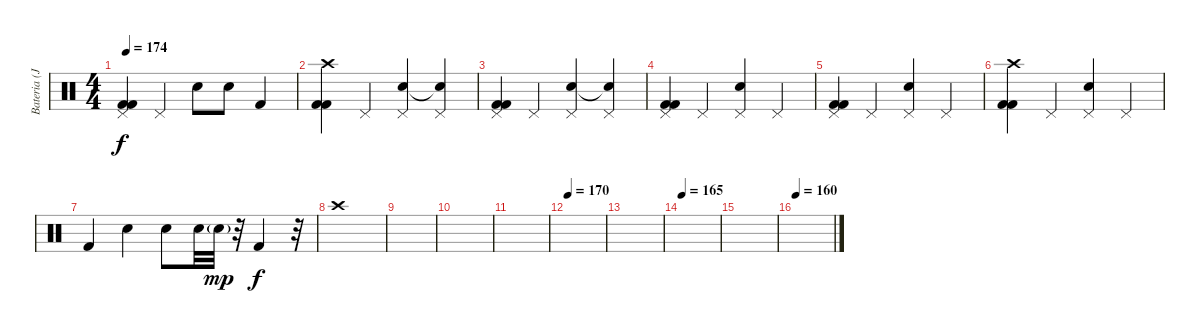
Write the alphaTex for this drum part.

\track ("Bateria (Jefrey Fischman)" "Bateria (J") {instrument percussion}
\staff {score}
\articulation defaults
\ts (4 4)
\tempo 174
\clef neutral
\ks c
("Pedal Hi-Hat (hit)" "Kick (hit) 2" "Kick (hit) 2").4{dy f} "Pedal Hi-Hat (hit)".4 "Snare (hit) 2".8 "Snare (hit) 2".8 "Kick (hit) 2".4 |
("Kick (hit) 2" "Kick (hit) 2" "Crash high (hit)").4 "Pedal Hi-Hat (hit)".4 ("Pedal Hi-Hat (hit)" "Snare (hit) 2").4 ("Pedal Hi-Hat (hit)" "Snare (hit)"{t}).4 |
("Pedal Hi-Hat (hit)" "Kick (hit) 2" "Kick (hit) 2").4 "Pedal Hi-Hat (hit)".4 ("Pedal Hi-Hat (hit)" "Snare (hit) 2").4 ("Pedal Hi-Hat (hit)" "Snare (hit)"{t}).4 |
("Pedal Hi-Hat (hit)" "Kick (hit) 2" "Kick (hit) 2").4 "Pedal Hi-Hat (hit)".4 ("Pedal Hi-Hat (hit)" "Snare (hit) 2").4 "Pedal Hi-Hat (hit)".4 |
("Pedal Hi-Hat (hit)" "Kick (hit) 2" "Kick (hit) 2").4 "Pedal Hi-Hat (hit)".4 ("Pedal Hi-Hat (hit)" "Snare (hit) 2").4 "Pedal Hi-Hat (hit)".4 |
("Crash high (hit)" "Kick (hit) 2" "Kick (hit) 2").4 "Pedal Hi-Hat (hit)".4 ("Pedal Hi-Hat (hit)" "Snare (hit) 2").4 "Pedal Hi-Hat (hit)".4 |
"Kick (hit) 2".4 "Snare (hit) 2".4 "Snare (hit) 2".8 "Snare (hit) 2".32 "Electric Snare (hit)"{g}.32{dy mp} r.32 "Kick (hit) 2".4{dy f} r.32 |
"Crash high (hit)".1 |
|
|
|
\tempo 170
|
|
\tempo 165
|
|
\tempo 160
